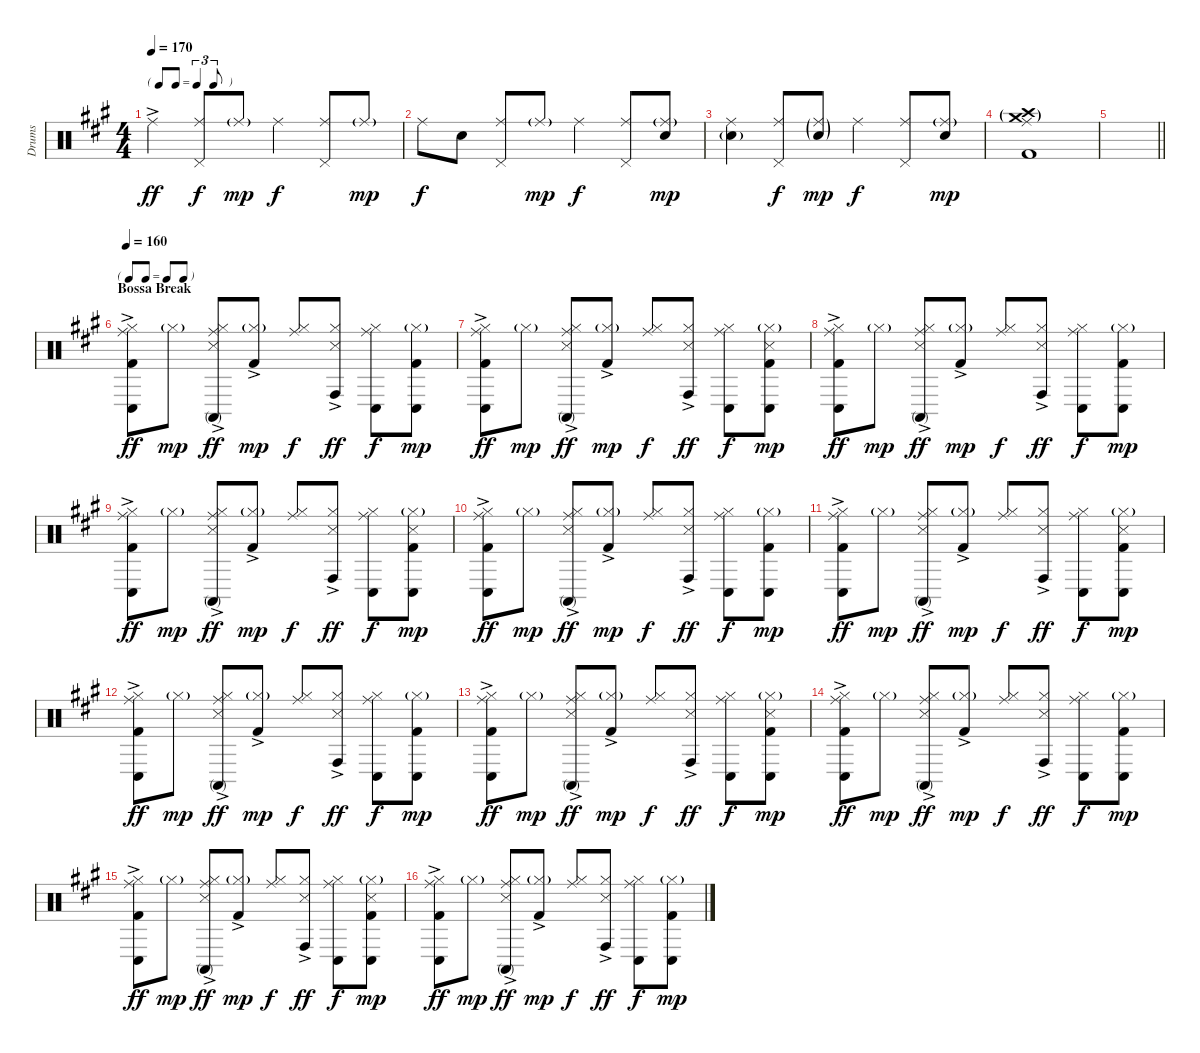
\track ("Drums" "Drums") {instrument percussion}
\staff {score}
\articulation defaults
\ts (4 4)
\tf triplet8th
\tempo 170
\clef neutral
\ks a "Ride (middle)"{ac}.4{dy ff}
("Pedal Hi-Hat (hit)" "Ride (middle)").8{dy f} "Ride (middle)"{g}.8{dy mp} "Ride (middle)".4{dy f} ("Pedal Hi-Hat (hit)" "Ride (middle)").8 "Ride (middle)"{g}.8{dy mp} |
"Ride (middle)".8{dy f} "Snare (hit) 2".8 ("Pedal Hi-Hat (hit)" "Ride (middle)").8 "Ride (middle)"{g}.8{dy mp} "Ride (middle)".4{dy f} ("Pedal Hi-Hat (hit)" "Ride (middle)").8 ("Snare (hit) 2" "Ride (middle)"{g}).8{dy mp} |
("Snare (hit) 2"{g} "Ride (middle)").4 ("Pedal Hi-Hat (hit)" "Ride (middle)").8{dy f} ("Snare (hit) 2"{g} "Ride (middle)"{g}).8{dy mp} "Ride (middle)".4{dy f} ("Pedal Hi-Hat (hit)" "Ride (middle)").8 ("Snare (hit) 2" "Ride (middle)"{g}).8{dy mp} |
("Kick (hit) 2" "Crash medium (hit)"{g} "Crash high (hit)"{g} "Ride (middle)").1 |
\barLineRight lightlight
|
\tf none
\section ("" "Bossa Break")
\tempo 160
("Kick (hit) 2"{ac} "Conga low (hit)" "Ride (middle)" "Hi-Hat (closed)").8{dy ff} "Hi-Hat (closed)"{g}.8{dy mp} ("Snare (side stick) 3"{ac} "Conga high (mute)"{ac} "Ride (middle)" "Hi-Hat (closed)"{ac}).8{dy ff} ("Kick (hit) 2"{ac} "Hi-Hat (closed)"{g}).8{dy mp} ("Ride (middle)" "Hi-Hat (closed)").8{dy f} ("Snare (side stick) 3"{ac} "Conga high (hit)" "Hi-Hat (closed)"{ac}).8{dy ff} ("Conga low (hit)" "Ride (middle)" "Hi-Hat (closed)").8{dy f} ("Kick (hit) 2" "Conga low (hit)" "Hi-Hat (closed)"{g}).8{dy mp} |
("Kick (hit) 2"{ac} "Conga low (hit)" "Ride (middle)" "Hi-Hat (closed)").8{dy ff} "Hi-Hat (closed)"{g}.8{dy mp} ("Snare (side stick) 3"{ac} "Conga high (mute)"{ac} "Ride (middle)" "Hi-Hat (closed)"{ac}).8{dy ff} ("Kick (hit) 2"{ac} "Hi-Hat (closed)"{g}).8{dy mp} ("Ride (middle)" "Hi-Hat (closed)").8{dy f} ("Snare (side stick) 3"{ac} "Conga high (hit)" "Hi-Hat (closed)"{ac}).8{dy ff} ("Conga low (hit)" "Ride (middle)" "Hi-Hat (closed)").8{dy f} ("Kick (hit) 2" "Snare (side stick) 3" "Conga low (hit)" "Hi-Hat (closed)"{g}).8{dy mp} |
("Kick (hit) 2"{ac} "Conga low (hit)" "Ride (middle)" "Hi-Hat (closed)").8{dy ff} "Hi-Hat (closed)"{g}.8{dy mp} ("Snare (side stick) 3"{ac} "Conga high (mute)"{ac} "Ride (middle)" "Hi-Hat (closed)"{ac}).8{dy ff} ("Kick (hit) 2"{ac} "Hi-Hat (closed)"{g}).8{dy mp} ("Ride (middle)" "Hi-Hat (closed)").8{dy f} ("Snare (side stick) 3"{ac} "Conga high (hit)" "Hi-Hat (closed)"{ac}).8{dy ff} ("Conga low (hit)" "Ride (middle)" "Hi-Hat (closed)").8{dy f} ("Kick (hit) 2" "Conga low (hit)" "Hi-Hat (closed)"{g}).8{dy mp} |
("Kick (hit) 2"{ac} "Conga low (hit)" "Ride (middle)" "Hi-Hat (closed)").8{dy ff} "Hi-Hat (closed)"{g}.8{dy mp} ("Snare (side stick) 3"{ac} "Conga high (mute)"{ac} "Ride (middle)" "Hi-Hat (closed)"{ac}).8{dy ff} ("Kick (hit) 2"{ac} "Hi-Hat (closed)"{g}).8{dy mp} ("Ride (middle)" "Hi-Hat (closed)").8{dy f} ("Snare (side stick) 3"{ac} "Conga high (hit)" "Hi-Hat (closed)"{ac}).8{dy ff} ("Conga low (hit)" "Ride (middle)" "Hi-Hat (closed)").8{dy f} ("Kick (hit) 2" "Snare (side stick) 3" "Conga low (hit)" "Hi-Hat (closed)"{g}).8{dy mp} |
("Kick (hit) 2"{ac} "Conga low (hit)" "Ride (middle)" "Hi-Hat (closed)").8{dy ff} "Hi-Hat (closed)"{g}.8{dy mp} ("Snare (side stick) 3"{ac} "Conga high (mute)"{ac} "Ride (middle)" "Hi-Hat (closed)"{ac}).8{dy ff} ("Kick (hit) 2"{ac} "Hi-Hat (closed)"{g}).8{dy mp} ("Ride (middle)" "Hi-Hat (closed)").8{dy f} ("Snare (side stick) 3"{ac} "Conga high (hit)" "Hi-Hat (closed)"{ac}).8{dy ff} ("Conga low (hit)" "Ride (middle)" "Hi-Hat (closed)").8{dy f} ("Kick (hit) 2" "Conga low (hit)" "Hi-Hat (closed)"{g}).8{dy mp} |
("Kick (hit) 2"{ac} "Conga low (hit)" "Ride (middle)" "Hi-Hat (closed)").8{dy ff} "Hi-Hat (closed)"{g}.8{dy mp} ("Snare (side stick) 3"{ac} "Conga high (mute)"{ac} "Ride (middle)" "Hi-Hat (closed)"{ac}).8{dy ff} ("Kick (hit) 2"{ac} "Hi-Hat (closed)"{g}).8{dy mp} ("Ride (middle)" "Hi-Hat (closed)").8{dy f} ("Snare (side stick) 3"{ac} "Conga high (hit)" "Hi-Hat (closed)"{ac}).8{dy ff} ("Conga low (hit)" "Ride (middle)" "Hi-Hat (closed)").8{dy f} ("Kick (hit) 2" "Snare (side stick) 3" "Conga low (hit)" "Hi-Hat (closed)"{g}).8{dy mp} |
("Kick (hit) 2"{ac} "Conga low (hit)" "Ride (middle)" "Hi-Hat (closed)").8{dy ff} "Hi-Hat (closed)"{g}.8{dy mp} ("Snare (side stick) 3"{ac} "Conga high (mute)"{ac} "Ride (middle)" "Hi-Hat (closed)"{ac}).8{dy ff} ("Kick (hit) 2"{ac} "Hi-Hat (closed)"{g}).8{dy mp} ("Ride (middle)" "Hi-Hat (closed)").8{dy f} ("Snare (side stick) 3"{ac} "Conga high (hit)" "Hi-Hat (closed)"{ac}).8{dy ff} ("Conga low (hit)" "Ride (middle)" "Hi-Hat (closed)").8{dy f} ("Kick (hit) 2" "Conga low (hit)" "Hi-Hat (closed)"{g}).8{dy mp} |
("Kick (hit) 2"{ac} "Conga low (hit)" "Ride (middle)" "Hi-Hat (closed)").8{dy ff} "Hi-Hat (closed)"{g}.8{dy mp} ("Snare (side stick) 3"{ac} "Conga high (mute)"{ac} "Ride (middle)" "Hi-Hat (closed)"{ac}).8{dy ff} ("Kick (hit) 2"{ac} "Hi-Hat (closed)"{g}).8{dy mp} ("Ride (middle)" "Hi-Hat (closed)").8{dy f} ("Snare (side stick) 3"{ac} "Conga high (hit)" "Hi-Hat (closed)"{ac}).8{dy ff} ("Conga low (hit)" "Ride (middle)" "Hi-Hat (closed)").8{dy f} ("Kick (hit) 2" "Snare (side stick) 3" "Conga low (hit)" "Hi-Hat (closed)"{g}).8{dy mp} |
("Kick (hit) 2"{ac} "Conga low (hit)" "Ride (middle)" "Hi-Hat (closed)").8{dy ff} "Hi-Hat (closed)"{g}.8{dy mp} ("Snare (side stick) 3"{ac} "Conga high (mute)"{ac} "Ride (middle)" "Hi-Hat (closed)"{ac}).8{dy ff} ("Kick (hit) 2"{ac} "Hi-Hat (closed)"{g}).8{dy mp} ("Ride (middle)" "Hi-Hat (closed)").8{dy f} ("Snare (side stick) 3"{ac} "Conga high (hit)" "Hi-Hat (closed)"{ac}).8{dy ff} ("Conga low (hit)" "Ride (middle)" "Hi-Hat (closed)").8{dy f} ("Kick (hit) 2" "Conga low (hit)" "Hi-Hat (closed)"{g}).8{dy mp} |
("Kick (hit) 2"{ac} "Conga low (hit)" "Ride (middle)" "Hi-Hat (closed)").8{dy ff} "Hi-Hat (closed)"{g}.8{dy mp} ("Snare (side stick) 3"{ac} "Conga high (mute)"{ac} "Ride (middle)" "Hi-Hat (closed)"{ac}).8{dy ff} ("Kick (hit) 2"{ac} "Hi-Hat (closed)"{g}).8{dy mp} ("Ride (middle)" "Hi-Hat (closed)").8{dy f} ("Snare (side stick) 3"{ac} "Conga high (hit)" "Hi-Hat (closed)"{ac}).8{dy ff} ("Conga low (hit)" "Ride (middle)" "Hi-Hat (closed)").8{dy f} ("Kick (hit) 2" "Snare (side stick) 3" "Conga low (hit)" "Hi-Hat (closed)"{g}).8{dy mp} |
("Kick (hit) 2"{ac} "Conga low (hit)" "Ride (middle)" "Hi-Hat (closed)").8{dy ff} "Hi-Hat (closed)"{g}.8{dy mp} ("Snare (side stick) 3"{ac} "Conga high (mute)"{ac} "Ride (middle)" "Hi-Hat (closed)"{ac}).8{dy ff} ("Kick (hit) 2"{ac} "Hi-Hat (closed)"{g}).8{dy mp} ("Ride (middle)" "Hi-Hat (closed)").8{dy f} ("Snare (side stick) 3"{ac} "Conga high (hit)" "Hi-Hat (closed)"{ac}).8{dy ff} ("Conga low (hit)" "Ride (middle)" "Hi-Hat (closed)").8{dy f} ("Kick (hit) 2" "Conga low (hit)" "Hi-Hat (closed)"{g}).8{dy mp}
